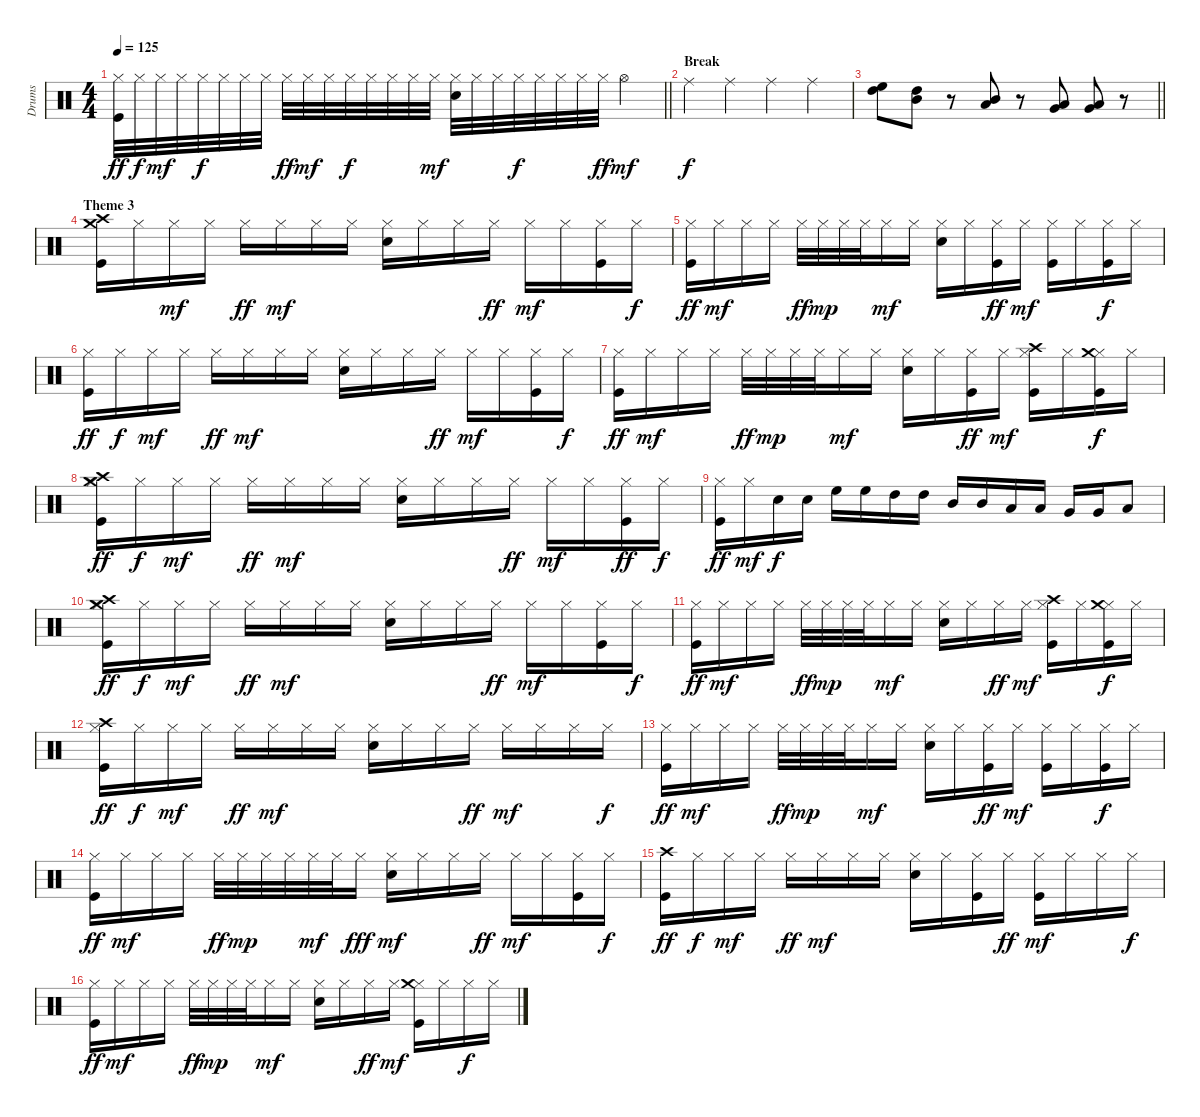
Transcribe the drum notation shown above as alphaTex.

\track ("Drums" "Drums") {instrument percussion}
\staff {score}
\articulation defaults
\ts (4 4)
\tempo 125
\clef neutral
\barLineRight lightlight
\ks c
("Hi-Hat (closed)" "Kick (hit)").32{dy ff} "Hi-Hat (closed)".32{dy f} "Hi-Hat (closed)".32{dy mf} "Hi-Hat (closed)".32 "Hi-Hat (closed)".32{dy f} "Hi-Hat (closed)".32 "Hi-Hat (closed)".32 "Hi-Hat (closed)".32 "Hi-Hat (closed)".32{dy ff} "Hi-Hat (closed)".32{dy mf} "Hi-Hat (closed)".32 "Hi-Hat (closed)".32{dy f} "Hi-Hat (closed)".32 "Hi-Hat (closed)".32 "Hi-Hat (closed)".32 "Hi-Hat (closed)".32{dy mf} ("Hi-Hat (closed)" "Electric Snare (hit)").32 "Hi-Hat (closed)".32 "Hi-Hat (closed)".32 "Hi-Hat (closed)".32{dy f} "Hi-Hat (closed)".32 "Hi-Hat (closed)".32 "Hi-Hat (closed)".32 "Hi-Hat (closed)".32{dy ff} "Hi-Hat (open)".4{dy mf} |
\section ("" "Break")
"Ride (middle)".4{dy f} "Ride (middle)".4 "Ride (middle)".4 "Ride (middle)".4 |
\barLineRight lightlight
("High Floor Tom (hit)" "High Tom (hit)").8 ("High Tom (hit)" "Mid Tom (hit)").8 r.8 ("Mid Tom (hit)" "Low Tom (hit)").8 r.8 ("Low Tom (hit)" "Very Low Tom (hit)").8 ("Very Low Tom (hit)" "Low Floor Tom (hit)").8 r.8 |
\section ("" "Theme 3")
("Kick (hit)" "Crash medium (hit)" "Crash high (hit)").16 "Hi-Hat (closed)".16 "Hi-Hat (closed)".16{dy mf} "Hi-Hat (closed)".16 "Hi-Hat (closed)".16{dy ff} "Hi-Hat (closed)".16{dy mf} "Hi-Hat (closed)".16 "Hi-Hat (closed)".16 ("Hi-Hat (closed)" "Electric Snare (hit)").16 "Hi-Hat (closed)".16 "Hi-Hat (closed)".16 "Hi-Hat (closed)".16{dy ff} "Hi-Hat (closed)".16{dy mf} "Hi-Hat (closed)".16 ("Hi-Hat (closed)" "Kick (hit)").16 "Hi-Hat (closed)".16{dy f} |
("Hi-Hat (closed)" "Kick (hit)").16{dy ff} "Hi-Hat (closed)".16{dy mf} "Hi-Hat (closed)".16 "Hi-Hat (closed)".16 "Hi-Hat (closed)".32{dy ff} "Hi-Hat (closed)".32{dy mp} "Hi-Hat (closed)".32 "Hi-Hat (closed)".32 "Hi-Hat (closed)".16{dy mf} "Hi-Hat (closed)".16 ("Hi-Hat (closed)" "Electric Snare (hit)").16 "Hi-Hat (closed)".16 ("Hi-Hat (closed)" "Kick (hit)").16{dy ff} "Hi-Hat (closed)".16{dy mf} ("Hi-Hat (closed)" "Kick (hit)").16 "Hi-Hat (closed)".16 ("Hi-Hat (closed)" "Kick (hit)").16{dy f} "Hi-Hat (closed)".16 |
("Hi-Hat (closed)" "Kick (hit)").16{dy ff} "Hi-Hat (closed)".16{dy f} "Hi-Hat (closed)".16{dy mf} "Hi-Hat (closed)".16 "Hi-Hat (closed)".16{dy ff} "Hi-Hat (closed)".16{dy mf} "Hi-Hat (closed)".16 "Hi-Hat (closed)".16 ("Hi-Hat (closed)" "Electric Snare (hit)").16 "Hi-Hat (closed)".16 "Hi-Hat (closed)".16 "Hi-Hat (closed)".16{dy ff} "Hi-Hat (closed)".16{dy mf} "Hi-Hat (closed)".16 ("Hi-Hat (closed)" "Kick (hit)").16 "Hi-Hat (closed)".16{dy f} |
("Hi-Hat (closed)" "Kick (hit)").16{dy ff} "Hi-Hat (closed)".16{dy mf} "Hi-Hat (closed)".16 "Hi-Hat (closed)".16 "Hi-Hat (closed)".32{dy ff} "Hi-Hat (closed)".32{dy mp} "Hi-Hat (closed)".32 "Hi-Hat (closed)".32 "Hi-Hat (closed)".16{dy mf} "Hi-Hat (closed)".16 ("Hi-Hat (closed)" "Electric Snare (hit)").16 "Hi-Hat (closed)".16 ("Hi-Hat (closed)" "Kick (hit)").16{dy ff} "Hi-Hat (closed)".16{dy mf} ("Hi-Hat (closed)" "Kick (hit)" "Crash high (hit)").16 "Hi-Hat (closed)".16 ("Hi-Hat (closed)" "Kick (hit)" "Crash medium (hit)").16{dy f} "Hi-Hat (closed)".16 |
("Hi-Hat (closed)" "Kick (hit)" "Crash medium (hit)" "Crash high (hit)").16{dy ff} "Hi-Hat (closed)".16{dy f} "Hi-Hat (closed)".16{dy mf} "Hi-Hat (closed)".16 "Hi-Hat (closed)".16{dy ff} "Hi-Hat (closed)".16{dy mf} "Hi-Hat (closed)".16 "Hi-Hat (closed)".16 ("Hi-Hat (closed)" "Electric Snare (hit)").16 "Hi-Hat (closed)".16 "Hi-Hat (closed)".16 "Hi-Hat (closed)".16{dy ff} "Hi-Hat (closed)".16{dy mf} "Hi-Hat (closed)".16 ("Hi-Hat (closed)" "Kick (hit)").16{dy ff} "Hi-Hat (closed)".16{dy f} |
("Kick (hit)" "Hi-Hat (closed)").16{dy ff} "Hi-Hat (closed)".16{dy mf} "Electric Snare (hit)".16{dy f} "Electric Snare (hit)".16 "High Floor Tom (hit)".16 "High Floor Tom (hit)".16 "High Tom (hit)".16 "High Tom (hit)".16 "Mid Tom (hit)".16 "Mid Tom (hit)".16 "Low Tom (hit)".16 "Low Tom (hit)".16 "Very Low Tom (hit)".16 "Very Low Tom (hit)".16 "Low Floor Tom (hit)".8 |
("Hi-Hat (closed)" "Kick (hit)" "Crash medium (hit)" "Crash high (hit)").16{dy ff} "Hi-Hat (closed)".16{dy f} "Hi-Hat (closed)".16{dy mf} "Hi-Hat (closed)".16 "Hi-Hat (closed)".16{dy ff} "Hi-Hat (closed)".16{dy mf} "Hi-Hat (closed)".16 "Hi-Hat (closed)".16 ("Hi-Hat (closed)" "Electric Snare (hit)").16 "Hi-Hat (closed)".16 "Hi-Hat (closed)".16 "Hi-Hat (closed)".16{dy ff} "Hi-Hat (closed)".16{dy mf} "Hi-Hat (closed)".16 ("Hi-Hat (closed)" "Kick (hit)").16 "Hi-Hat (closed)".16{dy f} |
("Kick (hit)" "Hi-Hat (closed)").16{dy ff} "Hi-Hat (closed)".16{dy mf} "Hi-Hat (closed)".16 "Hi-Hat (closed)".16 "Hi-Hat (closed)".32{dy ff} "Hi-Hat (closed)".32{dy mp} "Hi-Hat (closed)".32 "Hi-Hat (closed)".32 "Hi-Hat (closed)".16{dy mf} "Hi-Hat (closed)".16 ("Hi-Hat (closed)" "Electric Snare (hit)").16 "Hi-Hat (closed)".16 "Hi-Hat (closed)".16{dy ff} "Hi-Hat (closed)".16{dy mf} ("Hi-Hat (closed)" "Kick (hit)" "Crash high (hit)").16 "Hi-Hat (closed)".16 ("Hi-Hat (closed)" "Kick (hit)" "Crash medium (hit)").16{dy f} "Hi-Hat (closed)".16 |
("Hi-Hat (closed)" "Kick (hit)" "Crash high (hit)").16{dy ff} "Hi-Hat (closed)".16{dy f} "Hi-Hat (closed)".16{dy mf} "Hi-Hat (closed)".16 "Hi-Hat (closed)".16{dy ff} "Hi-Hat (closed)".16{dy mf} "Hi-Hat (closed)".16 "Hi-Hat (closed)".16 ("Hi-Hat (closed)" "Electric Snare (hit)").16 "Hi-Hat (closed)".16 "Hi-Hat (closed)".16 "Hi-Hat (closed)".16{dy ff} "Hi-Hat (closed)".16{dy mf} "Hi-Hat (closed)".16 "Hi-Hat (closed)".16 "Hi-Hat (closed)".16{dy f} |
("Kick (hit)" "Hi-Hat (closed)").16{dy ff} "Hi-Hat (closed)".16{dy mf} "Hi-Hat (closed)".16 "Hi-Hat (closed)".16 "Hi-Hat (closed)".32{dy ff} "Hi-Hat (closed)".32{dy mp} "Hi-Hat (closed)".32 "Hi-Hat (closed)".32 "Hi-Hat (closed)".16{dy mf} "Hi-Hat (closed)".16 ("Hi-Hat (closed)" "Electric Snare (hit)").16 "Hi-Hat (closed)".16 ("Hi-Hat (closed)" "Kick (hit)").16{dy ff} "Hi-Hat (closed)".16{dy mf} ("Hi-Hat (closed)" "Kick (hit)").16 "Hi-Hat (closed)".16 ("Hi-Hat (closed)" "Kick (hit)").16{dy f} "Hi-Hat (closed)".16 |
("Kick (hit)" "Hi-Hat (closed)").16{dy ff} "Hi-Hat (closed)".16{dy mf} "Hi-Hat (closed)".16 "Hi-Hat (closed)".16 "Hi-Hat (closed)".32{dy ff} "Hi-Hat (closed)".32{dy mp} "Hi-Hat (closed)".32 "Hi-Hat (closed)".32 "Hi-Hat (closed)".32{dy mf} "Hi-Hat (closed)".32 "Hi-Hat (closed)".16{dy fff} ("Hi-Hat (closed)" "Electric Snare (hit)").16{dy mf} "Hi-Hat (closed)".16 "Hi-Hat (closed)".16 "Hi-Hat (closed)".16{dy ff} "Hi-Hat (closed)".16{dy mf} "Hi-Hat (closed)".16 ("Hi-Hat (closed)" "Kick (hit)").16 "Hi-Hat (closed)".16{dy f} |
("Kick (hit)" "Crash high (hit)").16{dy ff} "Hi-Hat (closed)".16{dy f} "Hi-Hat (closed)".16{dy mf} "Hi-Hat (closed)".16 "Hi-Hat (closed)".16{dy ff} "Hi-Hat (closed)".16{dy mf} "Hi-Hat (closed)".16 "Hi-Hat (closed)".16 ("Hi-Hat (closed)" "Electric Snare (hit)").16 "Hi-Hat (closed)".16 ("Hi-Hat (closed)" "Kick (hit)").16 "Hi-Hat (closed)".16{dy ff} ("Hi-Hat (closed)" "Kick (hit)").16{dy mf} "Hi-Hat (closed)".16 "Hi-Hat (closed)".16 "Hi-Hat (closed)".16{dy f} |
("Kick (hit)" "Hi-Hat (closed)").16{dy ff} "Hi-Hat (closed)".16{dy mf} "Hi-Hat (closed)".16 "Hi-Hat (closed)".16 "Hi-Hat (closed)".32{dy ff} "Hi-Hat (closed)".32{dy mp} "Hi-Hat (closed)".32 "Hi-Hat (closed)".32 "Hi-Hat (closed)".16{dy mf} "Hi-Hat (closed)".16 ("Hi-Hat (closed)" "Electric Snare (hit)").16 "Hi-Hat (closed)".16 "Hi-Hat (closed)".16{dy ff} "Hi-Hat (closed)".16{dy mf} ("Hi-Hat (closed)" "Kick (hit)" "Crash medium (hit)").16 "Hi-Hat (closed)".16 "Hi-Hat (closed)".16{dy f} "Hi-Hat (closed)".16
